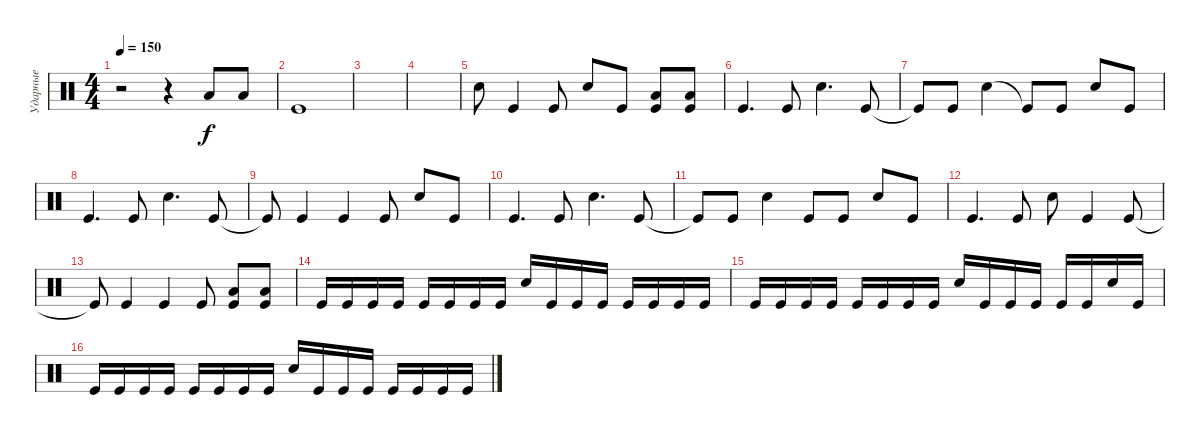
\track ("Ударные" "Ударные") {instrument percussion}
\staff {score}
\articulation defaults
\ts (4 4)
\tempo 150
\clef neutral
\ks c
r.2{dy f} r.4 "Low Tom (hit)".8 "Low Tom (hit)".8 |
"Kick (hit)".1 |
|
|
"Snare (hit) 2".8 "Kick (hit)".4 "Kick (hit)".8 "Snare (hit) 2".8 "Kick (hit)".8 ("Low Floor Tom (hit)" "Kick (hit)").8 ("Low Floor Tom (hit)" "Kick (hit)").8 |
"Kick (hit)".4{d} "Kick (hit)".8 "Snare (hit) 2".4{d} "Kick (hit)".8 |
"Kick (hit)"{t}.8 "Kick (hit)".8 "Snare (hit) 2".4 "Kick (hit)"{t}.8 "Kick (hit)".8 "Snare (hit) 2".8 "Kick (hit)".8 |
"Kick (hit)".4{d} "Kick (hit)".8 "Snare (hit) 2".4{d} "Kick (hit)".8 |
"Kick (hit)"{t}.8 "Kick (hit)".4 "Kick (hit)".4 "Kick (hit)".8 "Snare (hit) 2".8 "Kick (hit)".8 |
"Kick (hit)".4{d} "Kick (hit)".8 "Snare (hit) 2".4{d} "Kick (hit)".8 |
"Kick (hit)"{t}.8 "Kick (hit)".8 "Snare (hit) 2".4 "Kick (hit)".8 "Kick (hit)".8 "Snare (hit) 2".8 "Kick (hit)".8 |
"Kick (hit)".4{d} "Kick (hit)".8 "Snare (hit) 2".8 "Kick (hit)".4 "Kick (hit)".8 |
"Kick (hit)"{t}.8 "Kick (hit)".4 "Kick (hit)".4 "Kick (hit)".8 ("Low Floor Tom (hit)" "Kick (hit)").8 ("Low Floor Tom (hit)" "Kick (hit)").8 |
"Kick (hit)".16 "Kick (hit)".16 "Kick (hit)".16 "Kick (hit)".16 "Kick (hit)".16 "Kick (hit)".16 "Kick (hit)".16 "Kick (hit)".16 "Snare (hit) 2".16 "Kick (hit)".16 "Kick (hit)".16 "Kick (hit)".16 "Kick (hit)".16 "Kick (hit)".16 "Kick (hit)".16 "Kick (hit)".16 |
"Kick (hit)".16 "Kick (hit)".16 "Kick (hit)".16 "Kick (hit)".16 "Kick (hit)".16 "Kick (hit)".16 "Kick (hit)".16 "Kick (hit)".16 "Snare (hit) 2".16 "Kick (hit)".16 "Kick (hit)".16 "Kick (hit)".16 "Kick (hit)".16 "Kick (hit)".16 "Snare (hit) 2".16 "Kick (hit)".16 |
"Kick (hit)".16 "Kick (hit)".16 "Kick (hit)".16 "Kick (hit)".16 "Kick (hit)".16 "Kick (hit)".16 "Kick (hit)".16 "Kick (hit)".16 "Snare (hit) 2".16 "Kick (hit)".16 "Kick (hit)".16 "Kick (hit)".16 "Kick (hit)".16 "Kick (hit)".16 "Kick (hit)".16 "Kick (hit)".16
